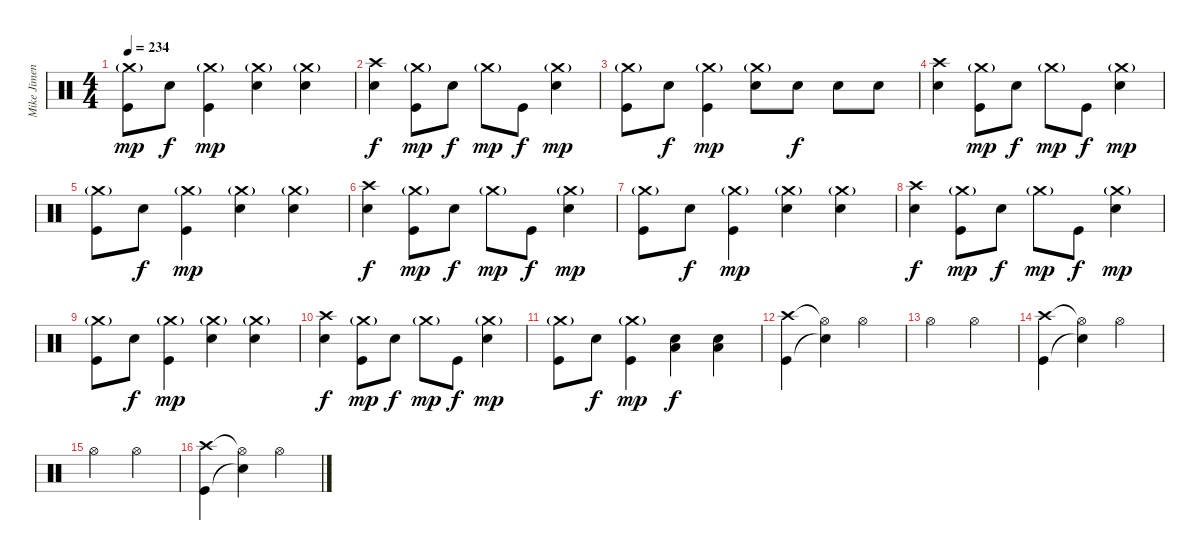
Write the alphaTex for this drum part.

\track ("Mike Jimenez" "Mike Jimen") {instrument percussion}
\staff {score}
\articulation defaults
\ts (4 4)
\tempo 234
\clef neutral
\ks c
("Crash medium (hit)"{g} "Kick (hit)").8{dy mp} "Electric Snare (hit)".8{dy f} ("Crash medium (hit)"{g} "Kick (hit)").4{dy mp} ("Crash medium (hit)"{g} "Electric Snare (hit)").4 ("Crash medium (hit)"{g} "Electric Snare (hit)").4 |
("Crash high (hit)" "Electric Snare (hit)").4{dy f} ("Crash medium (hit)"{g} "Kick (hit)").8{dy mp} "Electric Snare (hit)".8{dy f} "Crash medium (hit)"{g}.8{dy mp} "Kick (hit)".8{dy f} ("Crash medium (hit)"{g} "Electric Snare (hit)").4{dy mp} |
("Crash medium (hit)"{g} "Kick (hit)").8 "Electric Snare (hit)".8{dy f} ("Crash medium (hit)"{g} "Kick (hit)").4{dy mp} ("Crash medium (hit)"{g} "Electric Snare (hit)").8 "Electric Snare (hit)".8{dy f} "Electric Snare (hit)".8 "Electric Snare (hit)".8 |
("Crash high (hit)" "Electric Snare (hit)").4 ("Crash medium (hit)"{g} "Kick (hit)").8{dy mp} "Electric Snare (hit)".8{dy f} "Crash medium (hit)"{g}.8{dy mp} "Kick (hit)".8{dy f} ("Crash medium (hit)"{g} "Electric Snare (hit)").4{dy mp} |
("Crash medium (hit)"{g} "Kick (hit)").8 "Electric Snare (hit)".8{dy f} ("Crash medium (hit)"{g} "Kick (hit)").4{dy mp} ("Crash medium (hit)"{g} "Electric Snare (hit)").4 ("Crash medium (hit)"{g} "Electric Snare (hit)").4 |
("Crash high (hit)" "Electric Snare (hit)").4{dy f} ("Crash medium (hit)"{g} "Kick (hit)").8{dy mp} "Electric Snare (hit)".8{dy f} "Crash medium (hit)"{g}.8{dy mp} "Kick (hit)".8{dy f} ("Crash medium (hit)"{g} "Electric Snare (hit)").4{dy mp} |
("Crash medium (hit)"{g} "Kick (hit)").8 "Electric Snare (hit)".8{dy f} ("Crash medium (hit)"{g} "Kick (hit)").4{dy mp} ("Crash medium (hit)"{g} "Electric Snare (hit)").4 ("Crash medium (hit)"{g} "Electric Snare (hit)").4 |
("Crash high (hit)" "Electric Snare (hit)").4{dy f} ("Crash medium (hit)"{g} "Kick (hit)").8{dy mp} "Electric Snare (hit)".8{dy f} "Crash medium (hit)"{g}.8{dy mp} "Kick (hit)".8{dy f} ("Crash medium (hit)"{g} "Electric Snare (hit)").4{dy mp} |
("Crash medium (hit)"{g} "Kick (hit)").8 "Electric Snare (hit)".8{dy f} ("Crash medium (hit)"{g} "Kick (hit)").4{dy mp} ("Crash medium (hit)"{g} "Electric Snare (hit)").4 ("Crash medium (hit)"{g} "Electric Snare (hit)").4 |
("Crash high (hit)" "Electric Snare (hit)").4{dy f} ("Crash medium (hit)"{g} "Kick (hit)").8{dy mp} "Electric Snare (hit)".8{dy f} "Crash medium (hit)"{g}.8{dy mp} "Kick (hit)".8{dy f} ("Crash medium (hit)"{g} "Electric Snare (hit)").4{dy mp} |
("Crash medium (hit)"{g} "Kick (hit)").8 "Electric Snare (hit)".8{dy f} ("Crash medium (hit)"{g} "Kick (hit)").4{dy mp} ("Low Tom (hit)" "Electric Snare (hit)").4{dy f} ("Low Tom (hit)" "Electric Snare (hit)").4 |
("Crash high (hit)" "Kick (hit)").4 ("Hi-Hat (open)"{t} "Snare (hit)"{t}).4 "Hi-Hat (open)".2 |
"Hi-Hat (open)".2 "Hi-Hat (open)".2 |
("Crash high (hit)" "Kick (hit)").4 ("Hi-Hat (open)"{t} "Snare (hit)"{t}).4 "Hi-Hat (open)".2 |
"Hi-Hat (open)".2 "Hi-Hat (open)".2 |
("Crash high (hit)" "Kick (hit)").4 ("Hi-Hat (open)"{t} "Snare (hit)"{t}).4 "Hi-Hat (open)".2
